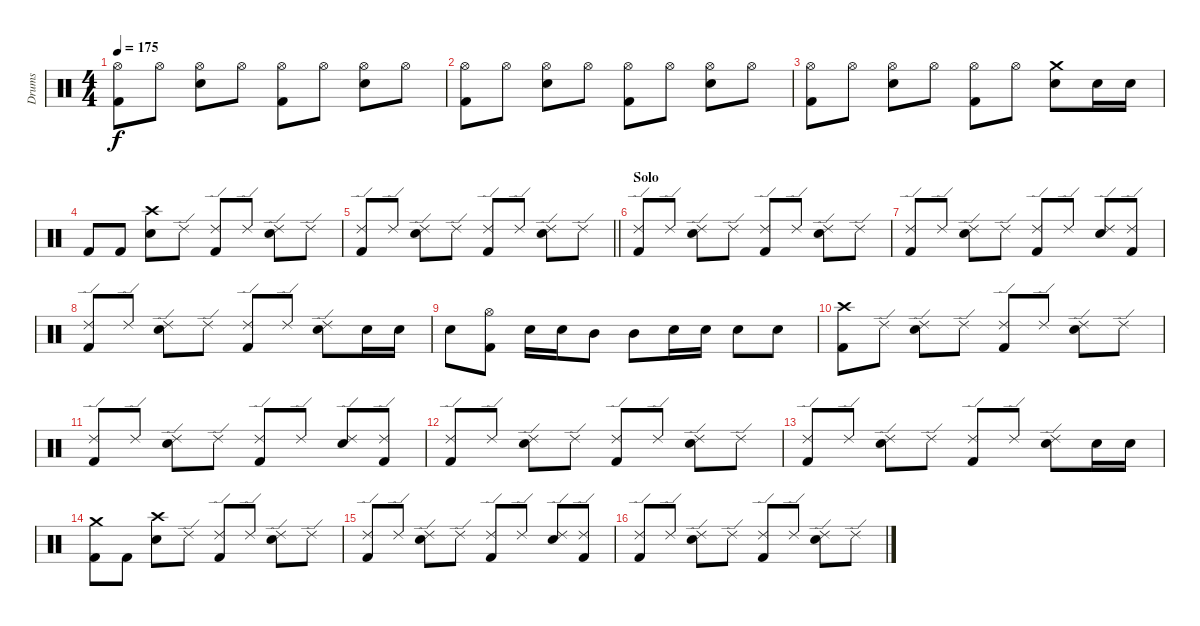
\track ("Drums" "Drums") {instrument percussion}
\staff {score}
\articulation defaults
\ts (4 4)
\tempo 175
\clef neutral
\ks c
("Hi-Hat (open)" "Kick (hit) 2").8{dy f} "Hi-Hat (open)".8 ("Hi-Hat (open)" "Snare (hit) 2").8 "Hi-Hat (open)".8 ("Hi-Hat (open)" "Kick (hit) 2").8 "Hi-Hat (open)".8 ("Hi-Hat (open)" "Snare (hit) 2").8 "Hi-Hat (open)".8 |
("Hi-Hat (open)" "Kick (hit) 2").8 "Hi-Hat (open)".8 ("Hi-Hat (open)" "Snare (hit) 2").8 "Hi-Hat (open)".8 ("Hi-Hat (open)" "Kick (hit) 2").8 "Hi-Hat (open)".8 ("Hi-Hat (open)" "Snare (hit) 2").8 "Hi-Hat (open)".8 |
("Hi-Hat (open)" "Kick (hit) 2").8 "Hi-Hat (open)".8 ("Hi-Hat (open)" "Snare (hit) 2").8 "Hi-Hat (open)".8 ("Hi-Hat (open)" "Kick (hit) 2").8 "Hi-Hat (open)".8 ("Crash medium (hit)" "Snare (hit) 2").8 "Snare (hit) 2".16 "Snare (hit) 2".16 |
"Kick (hit) 2".8 "Kick (hit) 2".8 ("Crash high (hit)" "Snare (hit) 2").8 "Ride (edge) 2".8 ("Ride (edge) 2" "Kick (hit) 2").8 "Ride (edge) 2".8 ("Ride (edge) 2" "Snare (hit) 2").8 "Ride (edge) 2".8 |
\barLineRight lightlight
("Ride (edge) 2" "Kick (hit) 2").8 "Ride (edge) 2".8 ("Ride (edge) 2" "Snare (hit) 2").8 "Ride (edge) 2".8 ("Ride (edge) 2" "Kick (hit) 2").8 "Ride (edge) 2".8 ("Ride (edge) 2" "Snare (hit) 2").8 "Ride (edge) 2".8 |
\section ("" "Solo")
("Ride (edge) 2" "Kick (hit) 2").8 "Ride (edge) 2".8 ("Ride (edge) 2" "Snare (hit) 2").8 "Ride (edge) 2".8 ("Ride (edge) 2" "Kick (hit) 2").8 "Ride (edge) 2".8 ("Ride (edge) 2" "Snare (hit) 2").8 "Ride (edge) 2".8 |
("Ride (edge) 2" "Kick (hit) 2").8 "Ride (edge) 2".8 ("Ride (edge) 2" "Snare (hit) 2").8 "Ride (edge) 2".8 ("Ride (edge) 2" "Kick (hit) 2").8 "Ride (edge) 2".8 ("Ride (edge) 2" "Snare (hit) 2").8 ("Ride (edge) 2" "Kick (hit) 2").8 |
("Ride (edge) 2" "Kick (hit) 2").8 "Ride (edge) 2".8 ("Ride (edge) 2" "Snare (hit) 2").8 "Ride (edge) 2".8 ("Ride (edge) 2" "Kick (hit) 2").8 "Ride (edge) 2".8 ("Ride (edge) 2" "Snare (hit) 2").8 "Snare (hit) 2".16 "Snare (hit) 2".16 |
"Snare (hit) 2".8 ("Hi-Hat (open)" "Kick (hit) 2").8 "Snare (hit) 2".16 "Snare (hit) 2".16 "Mid Tom (hit)".8 "Mid Tom (hit)".8 "Snare (hit) 2".16 "Snare (hit) 2".16 "Snare (hit) 2".8 "Snare (hit) 2".8 |
("Crash high (hit)" "Kick (hit) 2").8 "Ride (edge) 2".8 ("Ride (edge) 2" "Snare (hit) 2").8 "Ride (edge) 2".8 ("Ride (edge) 2" "Kick (hit) 2").8 "Ride (edge) 2".8 ("Ride (edge) 2" "Snare (hit) 2").8 "Ride (edge) 2".8 |
("Ride (edge) 2" "Kick (hit) 2").8 "Ride (edge) 2".8 ("Ride (edge) 2" "Snare (hit) 2").8 "Ride (edge) 2".8 ("Ride (edge) 2" "Kick (hit) 2").8 "Ride (edge) 2".8 ("Ride (edge) 2" "Snare (hit) 2").8 ("Ride (edge) 2" "Kick (hit) 2").8 |
("Ride (edge) 2" "Kick (hit) 2").8 "Ride (edge) 2".8 ("Ride (edge) 2" "Snare (hit) 2").8 "Ride (edge) 2".8 ("Ride (edge) 2" "Kick (hit) 2").8 "Ride (edge) 2".8 ("Ride (edge) 2" "Snare (hit) 2").8 "Ride (edge) 2".8 |
("Ride (edge) 2" "Kick (hit) 2").8 "Ride (edge) 2".8 ("Ride (edge) 2" "Snare (hit) 2").8 "Ride (edge) 2".8 ("Ride (edge) 2" "Kick (hit) 2").8 "Ride (edge) 2".8 ("Ride (edge) 2" "Snare (hit) 2").8 "Snare (hit) 2".16 "Snare (hit) 2".16 |
("Crash medium (hit)" "Kick (hit) 2").8 "Kick (hit) 2".8 ("Crash high (hit)" "Snare (hit) 2").8 "Ride (edge) 2".8 ("Ride (edge) 2" "Kick (hit) 2").8 "Ride (edge) 2".8 ("Ride (edge) 2" "Snare (hit) 2").8 "Ride (edge) 2".8 |
("Ride (edge) 2" "Kick (hit) 2").8 "Ride (edge) 2".8 ("Ride (edge) 2" "Snare (hit) 2").8 "Ride (edge) 2".8 ("Ride (edge) 2" "Kick (hit) 2").8 "Ride (edge) 2".8 ("Ride (edge) 2" "Snare (hit) 2").8 ("Ride (edge) 2" "Kick (hit) 2").8 |
("Ride (edge) 2" "Kick (hit) 2").8 "Ride (edge) 2".8 ("Ride (edge) 2" "Snare (hit) 2").8 "Ride (edge) 2".8 ("Ride (edge) 2" "Kick (hit) 2").8 "Ride (edge) 2".8 ("Ride (edge) 2" "Snare (hit) 2").8 "Ride (edge) 2".8
